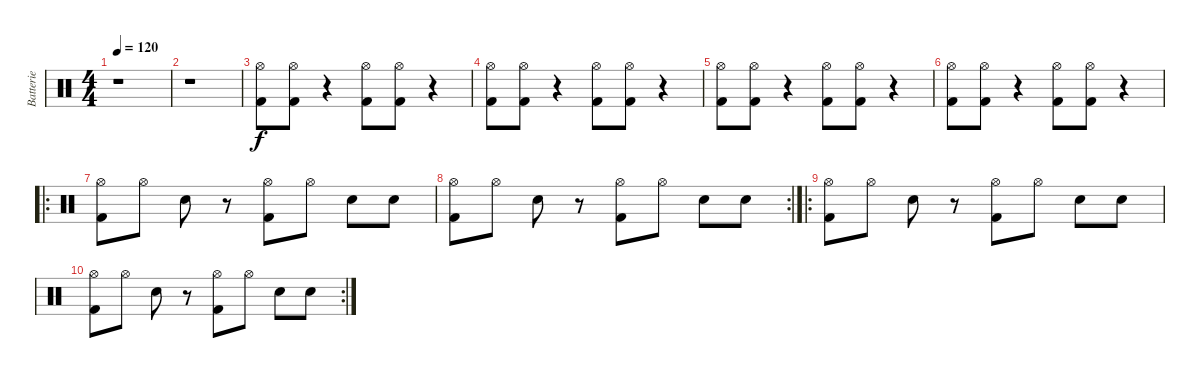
\track ("Batterie" "Batterie") {instrument percussion}
\staff {score}
\articulation defaults
\ts (4 4)
\tempo 120
\clef neutral
\ks c
r.1{dy f} |
r.1 |
("Hi-Hat (open)" "Kick (hit) 2").8 ("Hi-Hat (open)" "Kick (hit) 2").8 r.4 ("Hi-Hat (open)" "Kick (hit) 2").8 ("Hi-Hat (open)" "Kick (hit) 2").8 r.4 |
("Hi-Hat (open)" "Kick (hit) 2").8 ("Hi-Hat (open)" "Kick (hit) 2").8 r.4 ("Hi-Hat (open)" "Kick (hit) 2").8 ("Hi-Hat (open)" "Kick (hit) 2").8 r.4 |
("Hi-Hat (open)" "Kick (hit) 2").8 ("Hi-Hat (open)" "Kick (hit) 2").8 r.4 ("Hi-Hat (open)" "Kick (hit) 2").8 ("Hi-Hat (open)" "Kick (hit) 2").8 r.4 |
("Hi-Hat (open)" "Kick (hit) 2").8 ("Hi-Hat (open)" "Kick (hit) 2").8 r.4 ("Hi-Hat (open)" "Kick (hit) 2").8 ("Hi-Hat (open)" "Kick (hit) 2").8 r.4 |
\ro
("Hi-Hat (open)" "Kick (hit) 2").8 "Hi-Hat (open)".8 "Snare (hit) 2".8 r.8 ("Hi-Hat (open)" "Kick (hit) 2").8 "Hi-Hat (open)".8 "Snare (hit) 2".8 "Snare (hit) 2".8 |
\rc 2
("Hi-Hat (open)" "Kick (hit) 2").8 "Hi-Hat (open)".8 "Snare (hit) 2".8 r.8 ("Hi-Hat (open)" "Kick (hit) 2").8 "Hi-Hat (open)".8 "Snare (hit) 2".8 "Snare (hit) 2".8 |
\ro
("Hi-Hat (open)" "Kick (hit) 2").8 "Hi-Hat (open)".8 "Snare (hit) 2".8 r.8 ("Hi-Hat (open)" "Kick (hit) 2").8 "Hi-Hat (open)".8 "Snare (hit) 2".8 "Snare (hit) 2".8 |
\rc 2
("Hi-Hat (open)" "Kick (hit) 2").8 "Hi-Hat (open)".8 "Snare (hit) 2".8 r.8 ("Hi-Hat (open)" "Kick (hit) 2").8 "Hi-Hat (open)".8 "Snare (hit) 2".8 "Snare (hit) 2".8
